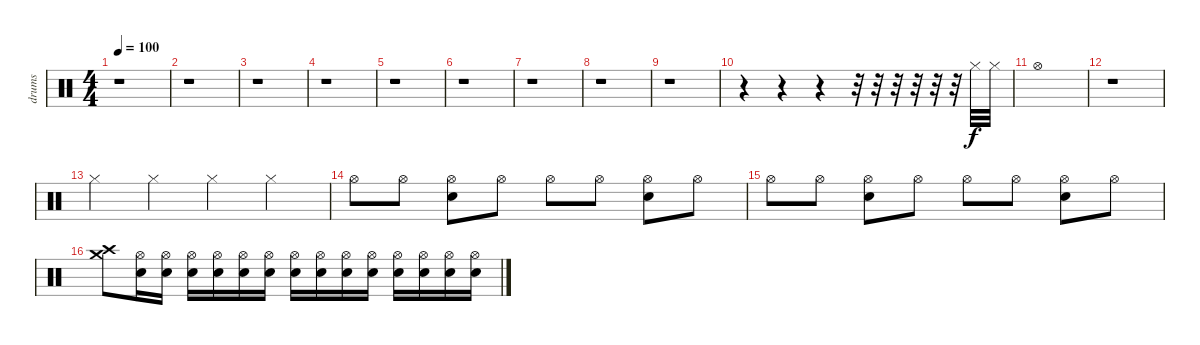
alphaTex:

\track ("drums" "drums") {instrument percussion}
\staff {score}
\articulation defaults
\ts (4 4)
\tempo 100
\clef neutral
\ks c
r.1{dy f} |
r.1 |
r.1 |
r.1 |
r.1 |
r.1 |
r.1 |
r.1 |
r.1 |
r.4 r.4 r.4 r.32 r.32 r.32 r.32 r.32 r.32 "Hi-Hat (closed)".32 "Hi-Hat (closed)".32 |
"Hi-Hat (open)".1 |
r.1 |
"Hi-Hat (closed)".4 "Hi-Hat (closed)".4 "Hi-Hat (closed)".4 "Hi-Hat (closed)".4 |
"Hi-Hat (open)".8 "Hi-Hat (open)".8 ("Snare (hit) 2" "Hi-Hat (open)").8 "Hi-Hat (open)".8 "Hi-Hat (open)".8 "Hi-Hat (open)".8 ("Snare (hit) 2" "Hi-Hat (open)").8 "Hi-Hat (open)".8 |
"Hi-Hat (open)".8 "Hi-Hat (open)".8 ("Snare (hit) 2" "Hi-Hat (open)").8 "Hi-Hat (open)".8 "Hi-Hat (open)".8 "Hi-Hat (open)".8 ("Snare (hit) 2" "Hi-Hat (open)").8 "Hi-Hat (open)".8 |
("Crash high (hit)" "Crash medium (hit)").8 ("Snare (hit) 2" "Hi-Hat (open)").16 ("Snare (hit) 2" "Hi-Hat (open)").16 ("Snare (hit) 2" "Hi-Hat (open)").16 ("Snare (hit) 2" "Hi-Hat (open)").16 ("Snare (hit) 2" "Hi-Hat (open)").16 ("Snare (hit) 2" "Hi-Hat (open)").16 ("Snare (hit) 2" "Hi-Hat (open)").16 ("Snare (hit) 2" "Hi-Hat (open)").16 ("Snare (hit) 2" "Hi-Hat (open)").16 ("Snare (hit) 2" "Hi-Hat (open)").16 ("Snare (hit) 2" "Hi-Hat (open)").16 ("Snare (hit) 2" "Hi-Hat (open)").16 ("Snare (hit) 2" "Hi-Hat (open)").16 ("Snare (hit) 2" "Hi-Hat (open)").16
